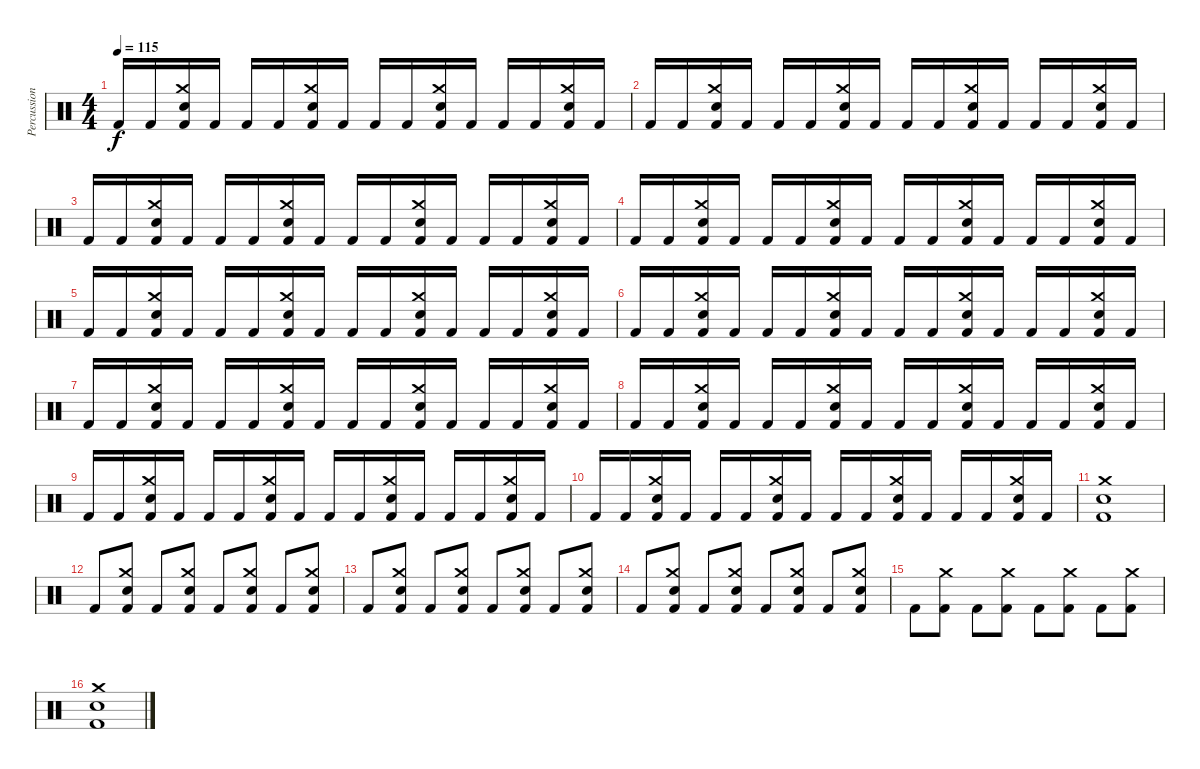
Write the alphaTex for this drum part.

\track ("Percussion" "Percussion") {instrument percussion}
\staff {score}
\articulation defaults
\ts (4 4)
\tempo 115
\clef neutral
\ks c "Kick (hit) 2".16{dy f} "Kick (hit) 2".16
("Crash medium (hit)" "Electric Snare (hit)" "Kick (hit) 2").16 "Kick (hit) 2".16 "Kick (hit) 2".16 "Kick (hit) 2".16 ("Crash medium (hit)" "Electric Snare (hit)" "Kick (hit) 2").16 "Kick (hit) 2".16 "Kick (hit) 2".16 "Kick (hit) 2".16 ("Electric Snare (hit)" "Crash medium (hit)" "Kick (hit) 2").16 "Kick (hit) 2".16 "Kick (hit) 2".16 "Kick (hit) 2".16 ("Crash medium (hit)" "Electric Snare (hit)" "Kick (hit) 2").16 "Kick (hit) 2".16 |
"Kick (hit) 2".16 "Kick (hit) 2".16 ("Crash medium (hit)" "Electric Snare (hit)" "Kick (hit) 2").16 "Kick (hit) 2".16 "Kick (hit) 2".16 "Kick (hit) 2".16 ("Crash medium (hit)" "Electric Snare (hit)" "Kick (hit) 2").16 "Kick (hit) 2".16 "Kick (hit) 2".16 "Kick (hit) 2".16 ("Electric Snare (hit)" "Crash medium (hit)" "Kick (hit) 2").16 "Kick (hit) 2".16 "Kick (hit) 2".16 "Kick (hit) 2".16 ("Crash medium (hit)" "Electric Snare (hit)" "Kick (hit) 2").16 "Kick (hit) 2".16 |
"Kick (hit) 2".16 "Kick (hit) 2".16 ("Crash medium (hit)" "Electric Snare (hit)" "Kick (hit) 2").16 "Kick (hit) 2".16 "Kick (hit) 2".16 "Kick (hit) 2".16 ("Crash medium (hit)" "Electric Snare (hit)" "Kick (hit) 2").16 "Kick (hit) 2".16 "Kick (hit) 2".16 "Kick (hit) 2".16 ("Electric Snare (hit)" "Crash medium (hit)" "Kick (hit) 2").16 "Kick (hit) 2".16 "Kick (hit) 2".16 "Kick (hit) 2".16 ("Crash medium (hit)" "Electric Snare (hit)" "Kick (hit) 2").16 "Kick (hit) 2".16 |
"Kick (hit) 2".16 "Kick (hit) 2".16 ("Crash medium (hit)" "Electric Snare (hit)" "Kick (hit) 2").16 "Kick (hit) 2".16 "Kick (hit) 2".16 "Kick (hit) 2".16 ("Crash medium (hit)" "Electric Snare (hit)" "Kick (hit) 2").16 "Kick (hit) 2".16 "Kick (hit) 2".16 "Kick (hit) 2".16 ("Electric Snare (hit)" "Crash medium (hit)" "Kick (hit) 2").16 "Kick (hit) 2".16 "Kick (hit) 2".16 "Kick (hit) 2".16 ("Crash medium (hit)" "Electric Snare (hit)" "Kick (hit) 2").16 "Kick (hit) 2".16 |
"Kick (hit) 2".16 "Kick (hit) 2".16 ("Crash medium (hit)" "Electric Snare (hit)" "Kick (hit) 2").16 "Kick (hit) 2".16 "Kick (hit) 2".16 "Kick (hit) 2".16 ("Crash medium (hit)" "Electric Snare (hit)" "Kick (hit) 2").16 "Kick (hit) 2".16 "Kick (hit) 2".16 "Kick (hit) 2".16 ("Electric Snare (hit)" "Crash medium (hit)" "Kick (hit) 2").16 "Kick (hit) 2".16 "Kick (hit) 2".16 "Kick (hit) 2".16 ("Crash medium (hit)" "Electric Snare (hit)" "Kick (hit) 2").16 "Kick (hit) 2".16 |
"Kick (hit) 2".16 "Kick (hit) 2".16 ("Crash medium (hit)" "Electric Snare (hit)" "Kick (hit) 2").16 "Kick (hit) 2".16 "Kick (hit) 2".16 "Kick (hit) 2".16 ("Crash medium (hit)" "Electric Snare (hit)" "Kick (hit) 2").16 "Kick (hit) 2".16 "Kick (hit) 2".16 "Kick (hit) 2".16 ("Electric Snare (hit)" "Crash medium (hit)" "Kick (hit) 2").16 "Kick (hit) 2".16 "Kick (hit) 2".16 "Kick (hit) 2".16 ("Crash medium (hit)" "Electric Snare (hit)" "Kick (hit) 2").16 "Kick (hit) 2".16 |
"Kick (hit) 2".16 "Kick (hit) 2".16 ("Crash medium (hit)" "Electric Snare (hit)" "Kick (hit) 2").16 "Kick (hit) 2".16 "Kick (hit) 2".16 "Kick (hit) 2".16 ("Crash medium (hit)" "Electric Snare (hit)" "Kick (hit) 2").16 "Kick (hit) 2".16 "Kick (hit) 2".16 "Kick (hit) 2".16 ("Electric Snare (hit)" "Crash medium (hit)" "Kick (hit) 2").16 "Kick (hit) 2".16 "Kick (hit) 2".16 "Kick (hit) 2".16 ("Crash medium (hit)" "Electric Snare (hit)" "Kick (hit) 2").16 "Kick (hit) 2".16 |
"Kick (hit) 2".16 "Kick (hit) 2".16 ("Crash medium (hit)" "Electric Snare (hit)" "Kick (hit) 2").16 "Kick (hit) 2".16 "Kick (hit) 2".16 "Kick (hit) 2".16 ("Crash medium (hit)" "Electric Snare (hit)" "Kick (hit) 2").16 "Kick (hit) 2".16 "Kick (hit) 2".16 "Kick (hit) 2".16 ("Electric Snare (hit)" "Crash medium (hit)" "Kick (hit) 2").16 "Kick (hit) 2".16 "Kick (hit) 2".16 "Kick (hit) 2".16 ("Crash medium (hit)" "Electric Snare (hit)" "Kick (hit) 2").16 "Kick (hit) 2".16 |
"Kick (hit) 2".16 "Kick (hit) 2".16 ("Crash medium (hit)" "Electric Snare (hit)" "Kick (hit) 2").16 "Kick (hit) 2".16 "Kick (hit) 2".16 "Kick (hit) 2".16 ("Crash medium (hit)" "Electric Snare (hit)" "Kick (hit) 2").16 "Kick (hit) 2".16 "Kick (hit) 2".16 "Kick (hit) 2".16 ("Electric Snare (hit)" "Crash medium (hit)" "Kick (hit) 2").16 "Kick (hit) 2".16 "Kick (hit) 2".16 "Kick (hit) 2".16 ("Crash medium (hit)" "Electric Snare (hit)" "Kick (hit) 2").16 "Kick (hit) 2".16 |
"Kick (hit) 2".16 "Kick (hit) 2".16 ("Crash medium (hit)" "Electric Snare (hit)" "Kick (hit) 2").16 "Kick (hit) 2".16 "Kick (hit) 2".16 "Kick (hit) 2".16 ("Crash medium (hit)" "Electric Snare (hit)" "Kick (hit) 2").16 "Kick (hit) 2".16 "Kick (hit) 2".16 "Kick (hit) 2".16 ("Electric Snare (hit)" "Crash medium (hit)" "Kick (hit) 2").16 "Kick (hit) 2".16 "Kick (hit) 2".16 "Kick (hit) 2".16 ("Crash medium (hit)" "Electric Snare (hit)" "Kick (hit) 2").16 "Kick (hit) 2".16 |
("Crash medium (hit)" "Electric Snare (hit)" "Kick (hit) 2").1 |
"Kick (hit) 2".8 ("Crash medium (hit)" "Kick (hit) 2" "Electric Snare (hit)").8 "Kick (hit) 2".8 ("Crash medium (hit)" "Kick (hit) 2" "Electric Snare (hit)").8 "Kick (hit) 2".8 ("Crash medium (hit)" "Kick (hit) 2" "Electric Snare (hit)").8 "Kick (hit) 2".8 ("Crash medium (hit)" "Kick (hit) 2" "Electric Snare (hit)").8 |
"Kick (hit) 2".8 ("Crash medium (hit)" "Kick (hit) 2" "Electric Snare (hit)").8 "Kick (hit) 2".8 ("Crash medium (hit)" "Kick (hit) 2" "Electric Snare (hit)").8 "Kick (hit) 2".8 ("Crash medium (hit)" "Kick (hit) 2" "Electric Snare (hit)").8 "Kick (hit) 2".8 ("Crash medium (hit)" "Kick (hit) 2" "Electric Snare (hit)").8 |
"Kick (hit) 2".8 ("Crash medium (hit)" "Kick (hit) 2" "Electric Snare (hit)").8 "Kick (hit) 2".8 ("Crash medium (hit)" "Kick (hit) 2" "Electric Snare (hit)").8 "Kick (hit) 2".8 ("Crash medium (hit)" "Kick (hit) 2" "Electric Snare (hit)").8 "Kick (hit) 2".8 ("Crash medium (hit)" "Kick (hit) 2" "Electric Snare (hit)").8 |
"Kick (hit) 2".8 ("Kick (hit) 2" "Crash medium (hit)").8 "Kick (hit) 2".8 ("Kick (hit) 2" "Crash medium (hit)").8 "Kick (hit) 2".8 ("Kick (hit) 2" "Crash medium (hit)").8 "Kick (hit) 2".8 ("Kick (hit) 2" "Crash medium (hit)").8 |
("Kick (hit) 2" "Crash medium (hit)" "Electric Snare (hit)").1
